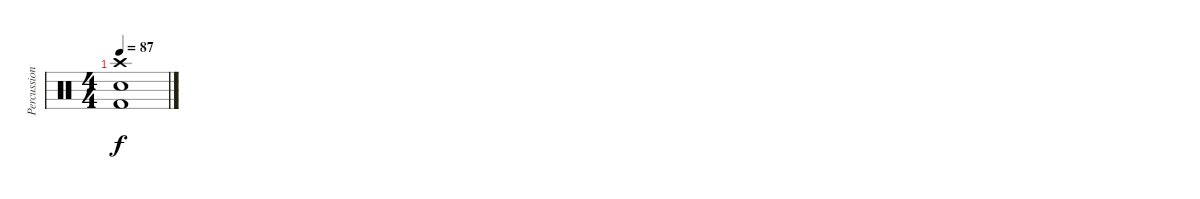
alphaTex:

\track ("Percussion" "Percussion") {instrument percussion}
\staff {score}
\articulation defaults
\ts (4 4)
\tempo 87
\clef neutral
\ks c
("Crash high (hit)" "Electric Snare (hit)" "Kick (hit) 2").1{dy f}
